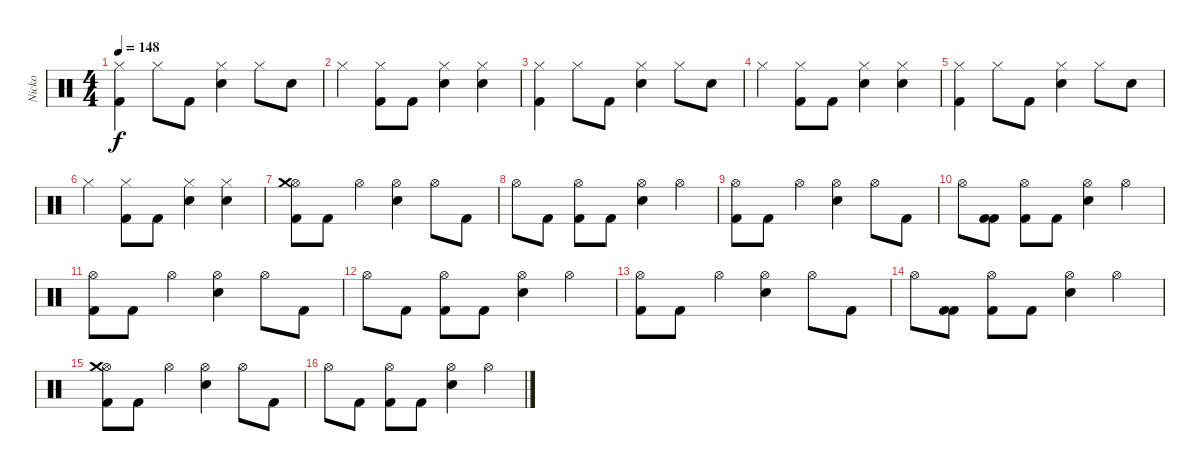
\track ("Nicko" "Nicko") {instrument percussion}
\staff {score}
\articulation defaults
\ts (4 4)
\tempo 148
\clef neutral
\ks c
("Hi-Hat (closed)" "Kick (hit) 2").4{dy f} "Hi-Hat (closed)".8 "Kick (hit) 2".8 ("Hi-Hat (closed)" "Snare (hit) 2").4 "Hi-Hat (closed)".8 "Snare (hit) 2".8 |
"Hi-Hat (closed)".4 ("Hi-Hat (closed)" "Kick (hit) 2").8 "Kick (hit) 2".8 ("Hi-Hat (closed)" "Snare (hit) 2").4 ("Hi-Hat (closed)" "Snare (hit) 2").4 |
("Hi-Hat (closed)" "Kick (hit) 2").4 "Hi-Hat (closed)".8 "Kick (hit) 2".8 ("Hi-Hat (closed)" "Snare (hit) 2").4 "Hi-Hat (closed)".8 "Snare (hit) 2".8 |
"Hi-Hat (closed)".4 ("Hi-Hat (closed)" "Kick (hit) 2").8 "Kick (hit) 2".8 ("Hi-Hat (closed)" "Snare (hit) 2").4 ("Hi-Hat (closed)" "Snare (hit) 2").4 |
("Hi-Hat (closed)" "Kick (hit) 2").4 "Hi-Hat (closed)".8 "Kick (hit) 2".8 ("Hi-Hat (closed)" "Snare (hit) 2").4 "Hi-Hat (closed)".8 "Snare (hit) 2".8 |
"Hi-Hat (closed)".4 ("Hi-Hat (closed)" "Kick (hit) 2").8 "Kick (hit) 2".8 ("Hi-Hat (closed)" "Snare (hit) 2").4 ("Hi-Hat (closed)" "Snare (hit) 2").4 |
("Hi-Hat (open)" "Crash medium (hit)" "Kick (hit) 2").8 "Kick (hit) 2".8 "Hi-Hat (open)".4 ("Hi-Hat (open)" "Snare (hit) 2").4 "Hi-Hat (open)".8 "Kick (hit) 2".8 |
"Hi-Hat (open)".8 "Kick (hit) 2".8 ("Hi-Hat (open)" "Kick (hit) 2").8 "Kick (hit) 2".8 ("Hi-Hat (open)" "Snare (hit) 2").4 "Hi-Hat (open)".4 |
("Hi-Hat (open)" "Kick (hit) 2").8 "Kick (hit) 2".8 "Hi-Hat (open)".4 ("Hi-Hat (open)" "Snare (hit) 2").4 "Hi-Hat (open)".8 "Kick (hit) 2".8 |
"Hi-Hat (open)".8 ("Kick (hit) 2" "Kick (hit) 2").8 ("Hi-Hat (open)" "Kick (hit) 2").8 "Kick (hit) 2".8 ("Hi-Hat (open)" "Snare (hit) 2").4 "Hi-Hat (open)".4 |
("Hi-Hat (open)" "Kick (hit) 2").8 "Kick (hit) 2".8 "Hi-Hat (open)".4 ("Hi-Hat (open)" "Snare (hit) 2").4 "Hi-Hat (open)".8 "Kick (hit) 2".8 |
"Hi-Hat (open)".8 "Kick (hit) 2".8 ("Hi-Hat (open)" "Kick (hit) 2").8 "Kick (hit) 2".8 ("Hi-Hat (open)" "Snare (hit) 2").4 "Hi-Hat (open)".4 |
("Hi-Hat (open)" "Kick (hit) 2").8 "Kick (hit) 2".8 "Hi-Hat (open)".4 ("Hi-Hat (open)" "Snare (hit) 2").4 "Hi-Hat (open)".8 "Kick (hit) 2".8 |
"Hi-Hat (open)".8 ("Kick (hit) 2" "Kick (hit) 2").8 ("Hi-Hat (open)" "Kick (hit) 2").8 "Kick (hit) 2".8 ("Hi-Hat (open)" "Snare (hit) 2").4 "Hi-Hat (open)".4 |
("Hi-Hat (open)" "Crash medium (hit)" "Kick (hit) 2").8 "Kick (hit) 2".8 "Hi-Hat (open)".4 ("Hi-Hat (open)" "Snare (hit) 2").4 "Hi-Hat (open)".8 "Kick (hit) 2".8 |
"Hi-Hat (open)".8 "Kick (hit) 2".8 ("Hi-Hat (open)" "Kick (hit) 2").8 "Kick (hit) 2".8 ("Hi-Hat (open)" "Snare (hit) 2").4 "Hi-Hat (open)".4
